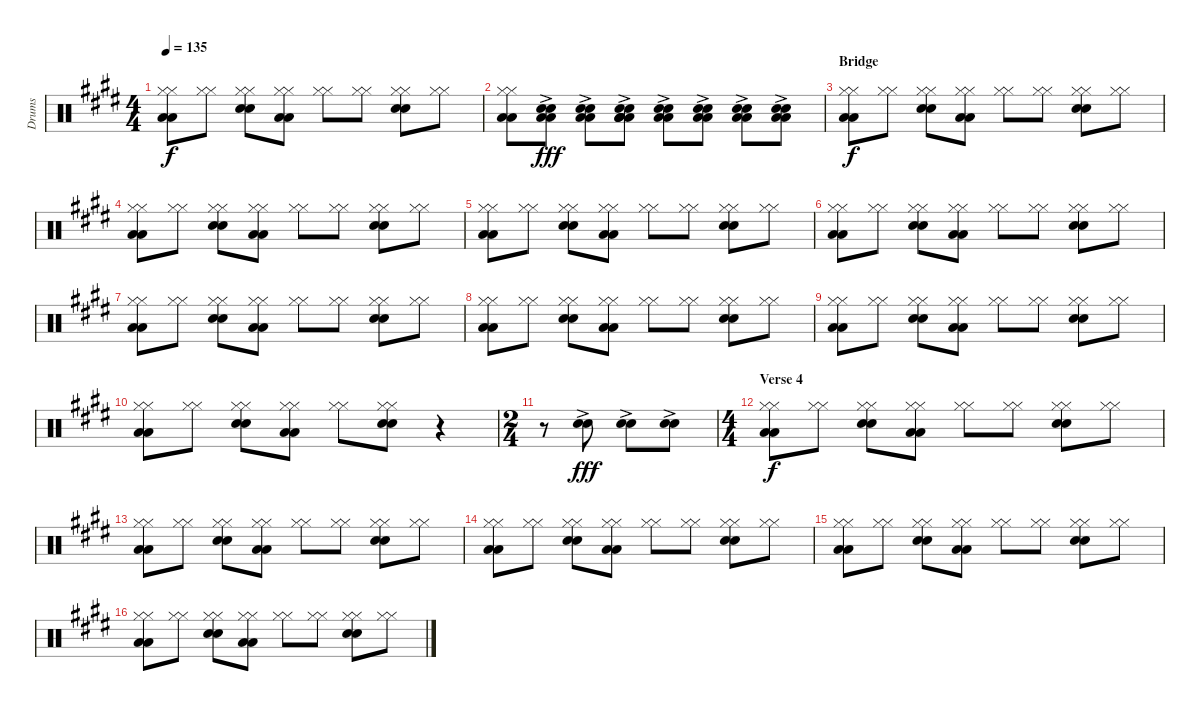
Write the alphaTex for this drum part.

\track ("Drums" "Drums") {instrument percussion}
\staff {score}
\articulation defaults
\ts (4 4)
\tempo 135
\clef neutral
\ks e
("Hi-Hat (closed)" "Hi-Hat (closed)" "Low Floor Tom (hit)" "Low Floor Tom (hit)").8{dy f} ("Hi-Hat (closed)" "Hi-Hat (closed)").8 ("Hi-Hat (closed)" "Hi-Hat (closed)" "Electric Snare (hit)" "Electric Snare (hit)").8 ("Hi-Hat (closed)" "Hi-Hat (closed)" "Low Floor Tom (hit)" "Low Floor Tom (hit)").8 ("Hi-Hat (closed)" "Hi-Hat (closed)").8 ("Hi-Hat (closed)" "Hi-Hat (closed)").8 ("Hi-Hat (closed)" "Hi-Hat (closed)" "Electric Snare (hit)" "Electric Snare (hit)").8 ("Hi-Hat (closed)" "Hi-Hat (closed)").8 |
("Hi-Hat (closed)" "Hi-Hat (closed)" "Low Floor Tom (hit)" "Low Floor Tom (hit)").8 ("Low Tom (hit)"{ac} "Low Tom (hit)"{ac} "Electric Snare (hit)"{ac} "Electric Snare (hit)"{ac}).8{dy fff} ("Low Tom (hit)"{ac} "Low Tom (hit)"{ac} "Electric Snare (hit)"{ac} "Electric Snare (hit)"{ac}).8 ("Low Tom (hit)"{ac} "Low Tom (hit)"{ac} "Electric Snare (hit)"{ac} "Electric Snare (hit)"{ac} "Low Floor Tom (hit)" "Low Floor Tom (hit)"{ac}).8 ("Low Tom (hit)"{ac} "Low Tom (hit)"{ac} "Electric Snare (hit)"{ac} "Electric Snare (hit)"{ac}).8 ("Low Tom (hit)"{ac} "Low Tom (hit)"{ac} "Electric Snare (hit)"{ac} "Electric Snare (hit)"{ac}).8 ("Low Tom (hit)"{ac} "Low Tom (hit)"{ac} "Electric Snare (hit)"{ac} "Electric Snare (hit)"{ac}).8 ("Low Tom (hit)"{ac} "Low Tom (hit)"{ac} "Electric Snare (hit)"{ac} "Electric Snare (hit)"{ac}).8 |
\section ("" "Bridge")
("Hi-Hat (closed)" "Hi-Hat (closed)" "Low Floor Tom (hit)" "Low Floor Tom (hit)").8{dy f} ("Hi-Hat (closed)" "Hi-Hat (closed)").8 ("Hi-Hat (closed)" "Hi-Hat (closed)" "Electric Snare (hit)" "Electric Snare (hit)").8 ("Hi-Hat (closed)" "Hi-Hat (closed)" "Low Floor Tom (hit)" "Low Floor Tom (hit)").8 ("Hi-Hat (closed)" "Hi-Hat (closed)").8 ("Hi-Hat (closed)" "Hi-Hat (closed)").8 ("Hi-Hat (closed)" "Hi-Hat (closed)" "Electric Snare (hit)" "Electric Snare (hit)").8 ("Hi-Hat (closed)" "Hi-Hat (closed)").8 |
("Hi-Hat (closed)" "Hi-Hat (closed)" "Low Floor Tom (hit)" "Low Floor Tom (hit)").8 ("Hi-Hat (closed)" "Hi-Hat (closed)").8 ("Hi-Hat (closed)" "Hi-Hat (closed)" "Electric Snare (hit)" "Electric Snare (hit)").8 ("Hi-Hat (closed)" "Hi-Hat (closed)" "Low Floor Tom (hit)" "Low Floor Tom (hit)").8 ("Hi-Hat (closed)" "Hi-Hat (closed)").8 ("Hi-Hat (closed)" "Hi-Hat (closed)").8 ("Hi-Hat (closed)" "Hi-Hat (closed)" "Electric Snare (hit)" "Electric Snare (hit)").8 ("Hi-Hat (closed)" "Hi-Hat (closed)").8 |
("Hi-Hat (closed)" "Hi-Hat (closed)" "Low Floor Tom (hit)" "Low Floor Tom (hit)").8 ("Hi-Hat (closed)" "Hi-Hat (closed)").8 ("Hi-Hat (closed)" "Hi-Hat (closed)" "Electric Snare (hit)" "Electric Snare (hit)").8 ("Hi-Hat (closed)" "Hi-Hat (closed)" "Low Floor Tom (hit)" "Low Floor Tom (hit)").8 ("Hi-Hat (closed)" "Hi-Hat (closed)").8 ("Hi-Hat (closed)" "Hi-Hat (closed)").8 ("Hi-Hat (closed)" "Hi-Hat (closed)" "Electric Snare (hit)" "Electric Snare (hit)").8 ("Hi-Hat (closed)" "Hi-Hat (closed)").8 |
("Hi-Hat (closed)" "Hi-Hat (closed)" "Low Floor Tom (hit)" "Low Floor Tom (hit)").8 ("Hi-Hat (closed)" "Hi-Hat (closed)").8 ("Hi-Hat (closed)" "Hi-Hat (closed)" "Electric Snare (hit)" "Electric Snare (hit)").8 ("Hi-Hat (closed)" "Hi-Hat (closed)" "Low Floor Tom (hit)" "Low Floor Tom (hit)").8 ("Hi-Hat (closed)" "Hi-Hat (closed)").8 ("Hi-Hat (closed)" "Hi-Hat (closed)").8 ("Hi-Hat (closed)" "Hi-Hat (closed)" "Electric Snare (hit)" "Electric Snare (hit)").8 ("Hi-Hat (closed)" "Hi-Hat (closed)").8 |
("Hi-Hat (closed)" "Hi-Hat (closed)" "Low Floor Tom (hit)" "Low Floor Tom (hit)").8 ("Hi-Hat (closed)" "Hi-Hat (closed)").8 ("Hi-Hat (closed)" "Hi-Hat (closed)" "Electric Snare (hit)" "Electric Snare (hit)").8 ("Hi-Hat (closed)" "Hi-Hat (closed)" "Low Floor Tom (hit)" "Low Floor Tom (hit)").8 ("Hi-Hat (closed)" "Hi-Hat (closed)").8 ("Hi-Hat (closed)" "Hi-Hat (closed)").8 ("Hi-Hat (closed)" "Hi-Hat (closed)" "Electric Snare (hit)" "Electric Snare (hit)").8 ("Hi-Hat (closed)" "Hi-Hat (closed)").8 |
("Hi-Hat (closed)" "Hi-Hat (closed)" "Low Floor Tom (hit)" "Low Floor Tom (hit)").8 ("Hi-Hat (closed)" "Hi-Hat (closed)").8 ("Hi-Hat (closed)" "Hi-Hat (closed)" "Electric Snare (hit)" "Electric Snare (hit)").8 ("Hi-Hat (closed)" "Hi-Hat (closed)" "Low Floor Tom (hit)" "Low Floor Tom (hit)").8 ("Hi-Hat (closed)" "Hi-Hat (closed)").8 ("Hi-Hat (closed)" "Hi-Hat (closed)").8 ("Hi-Hat (closed)" "Hi-Hat (closed)" "Electric Snare (hit)" "Electric Snare (hit)").8 ("Hi-Hat (closed)" "Hi-Hat (closed)").8 |
("Hi-Hat (closed)" "Hi-Hat (closed)" "Low Floor Tom (hit)" "Low Floor Tom (hit)").8 ("Hi-Hat (closed)" "Hi-Hat (closed)").8 ("Hi-Hat (closed)" "Hi-Hat (closed)" "Electric Snare (hit)" "Electric Snare (hit)").8 ("Hi-Hat (closed)" "Hi-Hat (closed)" "Low Floor Tom (hit)" "Low Floor Tom (hit)").8 ("Hi-Hat (closed)" "Hi-Hat (closed)").8 ("Hi-Hat (closed)" "Hi-Hat (closed)").8 ("Hi-Hat (closed)" "Hi-Hat (closed)" "Electric Snare (hit)" "Electric Snare (hit)").8 ("Hi-Hat (closed)" "Hi-Hat (closed)").8 |
("Hi-Hat (closed)" "Hi-Hat (closed)" "Low Floor Tom (hit)" "Low Floor Tom (hit)").8 ("Hi-Hat (closed)" "Hi-Hat (closed)").8 ("Hi-Hat (closed)" "Hi-Hat (closed)" "Electric Snare (hit)" "Electric Snare (hit)").8 ("Hi-Hat (closed)" "Hi-Hat (closed)" "Low Floor Tom (hit)" "Low Floor Tom (hit)").8 ("Hi-Hat (closed)" "Hi-Hat (closed)").8 ("Hi-Hat (closed)" "Hi-Hat (closed)" "Electric Snare (hit)" "Electric Snare (hit)").8 r.4 |
\ts (2 4)
r.8 ("Electric Snare (hit)"{ac} "Electric Snare (hit)"{ac}).8{dy fff} ("Electric Snare (hit)"{ac} "Electric Snare (hit)"{ac}).8 ("Electric Snare (hit)"{ac} "Electric Snare (hit)"{ac}).8 |
\ts (4 4)
\section ("" "Verse 4")
("Hi-Hat (closed)" "Hi-Hat (closed)" "Low Floor Tom (hit)" "Low Floor Tom (hit)").8{dy f} ("Hi-Hat (closed)" "Hi-Hat (closed)").8 ("Hi-Hat (closed)" "Hi-Hat (closed)" "Electric Snare (hit)" "Electric Snare (hit)").8 ("Hi-Hat (closed)" "Hi-Hat (closed)" "Low Floor Tom (hit)" "Low Floor Tom (hit)").8 ("Hi-Hat (closed)" "Hi-Hat (closed)").8 ("Hi-Hat (closed)" "Hi-Hat (closed)").8 ("Hi-Hat (closed)" "Hi-Hat (closed)" "Electric Snare (hit)" "Electric Snare (hit)").8 ("Hi-Hat (closed)" "Hi-Hat (closed)").8 |
("Hi-Hat (closed)" "Hi-Hat (closed)" "Low Floor Tom (hit)" "Low Floor Tom (hit)").8 ("Hi-Hat (closed)" "Hi-Hat (closed)").8 ("Hi-Hat (closed)" "Hi-Hat (closed)" "Electric Snare (hit)" "Electric Snare (hit)").8 ("Hi-Hat (closed)" "Hi-Hat (closed)" "Low Floor Tom (hit)" "Low Floor Tom (hit)").8 ("Hi-Hat (closed)" "Hi-Hat (closed)").8 ("Hi-Hat (closed)" "Hi-Hat (closed)").8 ("Hi-Hat (closed)" "Hi-Hat (closed)" "Electric Snare (hit)" "Electric Snare (hit)").8 ("Hi-Hat (closed)" "Hi-Hat (closed)").8 |
("Hi-Hat (closed)" "Hi-Hat (closed)" "Low Floor Tom (hit)" "Low Floor Tom (hit)").8 ("Hi-Hat (closed)" "Hi-Hat (closed)").8 ("Hi-Hat (closed)" "Hi-Hat (closed)" "Electric Snare (hit)" "Electric Snare (hit)").8 ("Hi-Hat (closed)" "Hi-Hat (closed)" "Low Floor Tom (hit)" "Low Floor Tom (hit)").8 ("Hi-Hat (closed)" "Hi-Hat (closed)").8 ("Hi-Hat (closed)" "Hi-Hat (closed)").8 ("Hi-Hat (closed)" "Hi-Hat (closed)" "Electric Snare (hit)" "Electric Snare (hit)").8 ("Hi-Hat (closed)" "Hi-Hat (closed)").8 |
("Hi-Hat (closed)" "Hi-Hat (closed)" "Low Floor Tom (hit)" "Low Floor Tom (hit)").8 ("Hi-Hat (closed)" "Hi-Hat (closed)").8 ("Hi-Hat (closed)" "Hi-Hat (closed)" "Electric Snare (hit)" "Electric Snare (hit)").8 ("Hi-Hat (closed)" "Hi-Hat (closed)" "Low Floor Tom (hit)" "Low Floor Tom (hit)").8 ("Hi-Hat (closed)" "Hi-Hat (closed)").8 ("Hi-Hat (closed)" "Hi-Hat (closed)").8 ("Hi-Hat (closed)" "Hi-Hat (closed)" "Electric Snare (hit)" "Electric Snare (hit)").8 ("Hi-Hat (closed)" "Hi-Hat (closed)").8 |
("Hi-Hat (closed)" "Hi-Hat (closed)" "Low Floor Tom (hit)" "Low Floor Tom (hit)").8 ("Hi-Hat (closed)" "Hi-Hat (closed)").8 ("Hi-Hat (closed)" "Hi-Hat (closed)" "Electric Snare (hit)" "Electric Snare (hit)").8 ("Hi-Hat (closed)" "Hi-Hat (closed)" "Low Floor Tom (hit)" "Low Floor Tom (hit)").8 ("Hi-Hat (closed)" "Hi-Hat (closed)").8 ("Hi-Hat (closed)" "Hi-Hat (closed)").8 ("Hi-Hat (closed)" "Hi-Hat (closed)" "Electric Snare (hit)" "Electric Snare (hit)").8 ("Hi-Hat (closed)" "Hi-Hat (closed)").8
